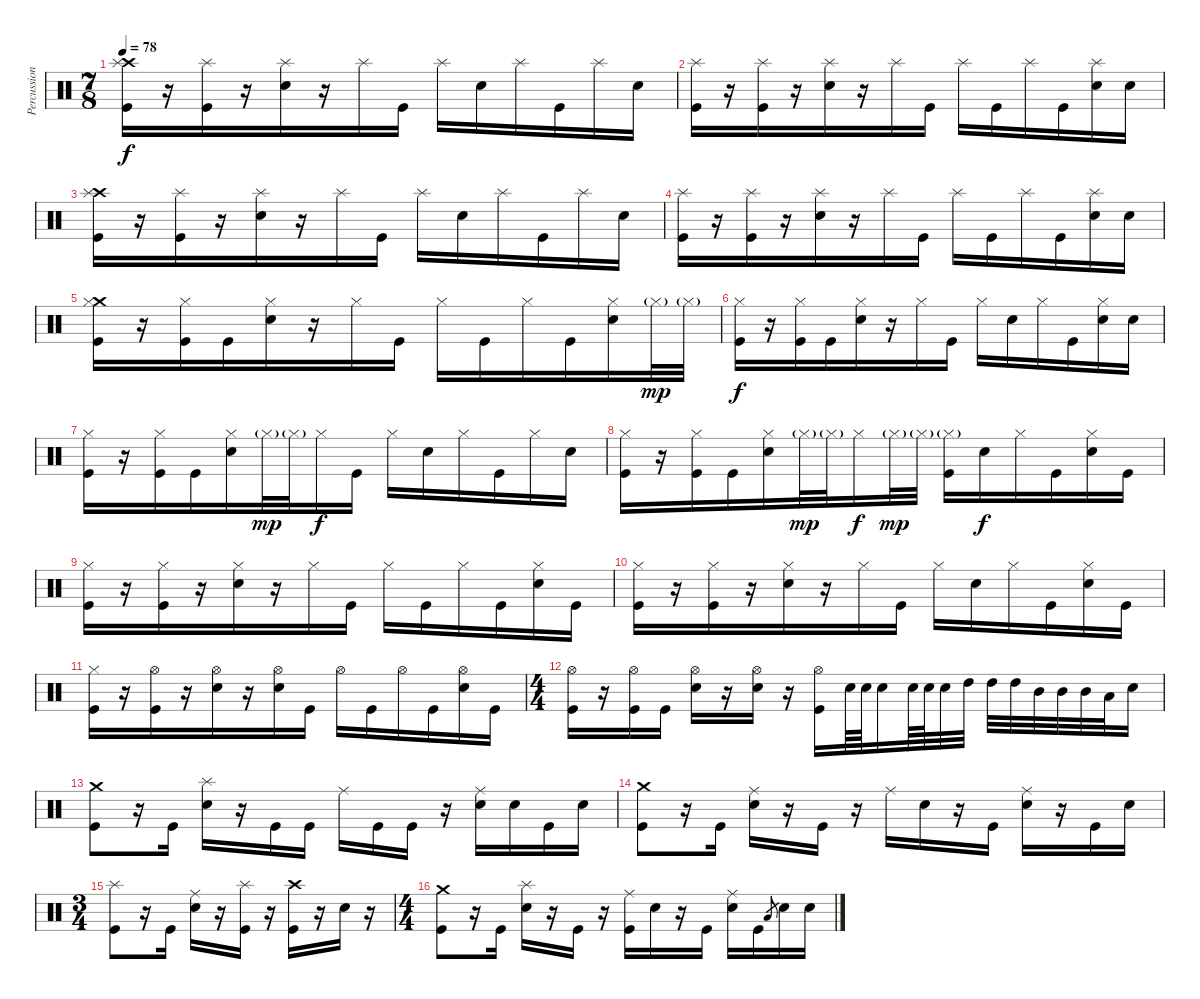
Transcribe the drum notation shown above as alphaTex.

\track ("Percussions" "Percussion") {instrument percussion}
\staff {score}
\articulation defaults
\ts (7 8)
\tempo 78
\clef neutral
\ks c
("Crash high (hit)" "Splash (hit)" "Kick (hit)").16{dy f} r.16 ("Splash (hit)" "Kick (hit)").16 r.16 ("Splash (hit)" "Snare (hit) 2").16 r.16 "Splash (hit)".16 "Kick (hit)".16 "Splash (hit)".16 "Snare (hit) 2".16 "Splash (hit)".16 "Kick (hit)".16 "Splash (hit)".16 "Snare (hit) 2".16 |
("Splash (hit)" "Kick (hit)").16 r.16 ("Splash (hit)" "Kick (hit)").16 r.16 ("Splash (hit)" "Snare (hit) 2").16 r.16 "Splash (hit)".16 "Kick (hit)".16 "Splash (hit)".16 "Kick (hit)".16 "Splash (hit)".16 "Kick (hit)".16 ("Splash (hit)" "Snare (hit) 2").16 "Snare (hit) 2".16 |
("Crash high (hit)" "Splash (hit)" "Kick (hit)").16 r.16 ("Splash (hit)" "Kick (hit)").16 r.16 ("Splash (hit)" "Snare (hit) 2").16 r.16 "Splash (hit)".16 "Kick (hit)".16 "Splash (hit)".16 "Snare (hit) 2".16 "Splash (hit)".16 "Kick (hit)".16 "Splash (hit)".16 "Snare (hit) 2".16 |
("Splash (hit)" "Kick (hit)").16 r.16 ("Splash (hit)" "Kick (hit)").16 r.16 ("Splash (hit)" "Snare (hit) 2").16 r.16 "Splash (hit)".16 "Kick (hit)".16 "Splash (hit)".16 "Kick (hit)".16 "Splash (hit)".16 "Kick (hit)".16 ("Splash (hit)" "Snare (hit) 2").16 "Snare (hit) 2".16 |
("Crash medium (hit)" "Hi-Hat (closed)" "Kick (hit)").16 r.16 ("Hi-Hat (closed)" "Kick (hit)").16 "Kick (hit)".16 ("Hi-Hat (closed)" "Snare (hit) 2").16 r.16 "Hi-Hat (closed)".16 "Kick (hit)".16 "Hi-Hat (closed)".16 "Kick (hit)".16 "Hi-Hat (closed)".16 "Kick (hit)".16 ("Hi-Hat (closed)" "Snare (hit) 2").16 "Hi-Hat (closed)"{g}.32{dy mp} "Hi-Hat (closed)"{g}.32 |
("Hi-Hat (closed)" "Kick (hit)").16{dy f} r.16 ("Hi-Hat (closed)" "Kick (hit)").16 "Kick (hit)".16 ("Hi-Hat (closed)" "Snare (hit) 2").16 r.16 "Hi-Hat (closed)".16 "Kick (hit)".16 "Hi-Hat (closed)".16 "Snare (hit) 2".16 "Hi-Hat (closed)".16 "Kick (hit)".16 ("Hi-Hat (closed)" "Snare (hit) 2").16 "Snare (hit) 2".16 |
("Hi-Hat (closed)" "Kick (hit)").16 r.16 ("Hi-Hat (closed)" "Kick (hit)").16 "Kick (hit)".16 ("Hi-Hat (closed)" "Snare (hit) 2").16 "Hi-Hat (closed)"{g}.32{dy mp} "Hi-Hat (closed)"{g}.32 "Hi-Hat (closed)".16{dy f} "Kick (hit)".16 "Hi-Hat (closed)".16 "Snare (hit) 2".16 "Hi-Hat (closed)".16 "Kick (hit)".16 "Hi-Hat (closed)".16 "Snare (hit) 2".16 |
("Hi-Hat (closed)" "Kick (hit)").16 r.16 ("Hi-Hat (closed)" "Kick (hit)").16 "Kick (hit)".16 ("Hi-Hat (closed)" "Snare (hit) 2").16 "Hi-Hat (closed)"{g}.32{dy mp} "Hi-Hat (closed)"{g}.32 "Hi-Hat (closed)".16{dy f} "Hi-Hat (closed)"{g}.32{dy mp} "Hi-Hat (closed)"{g}.32 ("Hi-Hat (closed)"{g} "Kick (hit)").16 "Snare (hit) 2".16{dy f} "Hi-Hat (closed)".16 "Kick (hit)".16 ("Hi-Hat (closed)" "Snare (hit) 2").16 "Kick (hit)".16 |
("Hi-Hat (closed)" "Kick (hit)").16 r.16 ("Hi-Hat (closed)" "Kick (hit)").16 r.16 ("Hi-Hat (closed)" "Snare (hit) 2").16 r.16 "Hi-Hat (closed)".16 "Kick (hit)".16 "Hi-Hat (closed)".16 "Kick (hit)".16 "Hi-Hat (closed)".16 "Kick (hit)".16 ("Hi-Hat (closed)" "Snare (hit) 2").16 "Kick (hit)".16 |
("Hi-Hat (closed)" "Kick (hit)").16 r.16 ("Hi-Hat (closed)" "Kick (hit)").16 r.16 ("Hi-Hat (closed)" "Snare (hit) 2").16 r.16 "Hi-Hat (closed)".16 "Kick (hit)".16 "Hi-Hat (closed)".16 "Snare (hit) 2".16 "Hi-Hat (closed)".16 "Kick (hit)".16 ("Hi-Hat (closed)" "Snare (hit) 2").16 "Kick (hit)".16 |
("Hi-Hat (closed)" "Kick (hit)").16 r.16 ("Hi-Hat (open)" "Kick (hit)").16 r.16 ("Hi-Hat (open)" "Snare (hit) 2").16 r.16 ("Hi-Hat (open)" "Snare (hit) 2").16 "Kick (hit)".16 "Hi-Hat (open)".16 "Kick (hit)".16 "Hi-Hat (open)".16 "Kick (hit)".16 ("Hi-Hat (open)" "Snare (hit) 2").16 "Kick (hit)".16 |
\ts (4 4)
("Hi-Hat (open)" "Kick (hit)").16 r.16 ("Hi-Hat (open)" "Kick (hit)").16 "Kick (hit)".16 ("Hi-Hat (open)" "Snare (hit) 2").16 r.16 ("Hi-Hat (open)" "Snare (hit) 2").16 r.16 ("Hi-Hat (open)" "Kick (hit)").16 "Snare (hit) 2".64 "Snare (hit) 2".64 "Snare (hit) 2".16 "Snare (hit) 2".64 "Snare (hit) 2".64 "Snare (hit) 2".32 "High Tom (hit)".32 "High Tom (hit)".32 "High Tom (hit)".32 "Mid Tom (hit)".32 "Mid Tom (hit)".32 "Mid Tom (hit)".32 "Low Tom (hit)".32 "Snare (hit) 2".16 |
("Crash medium (hit)" "Kick (hit)").8 r.16 "Kick (hit)".16 ("Splash (hit)" "Snare (hit) 2").16 r.16 "Kick (hit)".16 "Kick (hit)".16 "Ride (middle)".16 "Kick (hit)".16 "Kick (hit)".16 r.16 ("Ride (middle)" "Snare (hit) 2").16 "Snare (hit) 2".16 "Kick (hit)".16 "Snare (hit) 2".16 |
("Crash medium (hit)" "Kick (hit)").8 r.16 "Kick (hit)".16 ("Ride (middle)" "Snare (hit) 2").16 r.16 "Kick (hit)".16 r.16 "Ride (middle)".16 "Snare (hit) 2".16 r.16 "Kick (hit)".16 ("Ride (middle)" "Snare (hit) 2").16 r.16 "Kick (hit)".16 "Snare (hit) 2".16 |
\ts (3 4)
("Splash (hit)" "Kick (hit)").8 r.16 "Kick (hit)".16 ("Ride (middle)" "Snare (hit) 2").16 r.16 ("Splash (hit)" "Kick (hit)").16 r.16 ("Crash high (hit)" "Kick (hit)").16 r.16 "Snare (hit) 2".16 r.16 |
\ts (4 4)
("Crash medium (hit)" "Kick (hit)").8 r.16 "Kick (hit)".16 ("Splash (hit)" "Snare (hit) 2").16 r.16 "Kick (hit)".16 r.16 ("Ride (middle)" "Kick (hit)").16 "Snare (hit) 2".16 r.16 "Kick (hit)".16 ("Ride (middle)" "Snare (hit) 2").16 "Kick (hit)".16 "Low Tom (hit)".8{gr} "Snare (hit) 2".16 "Snare (hit) 2".16
